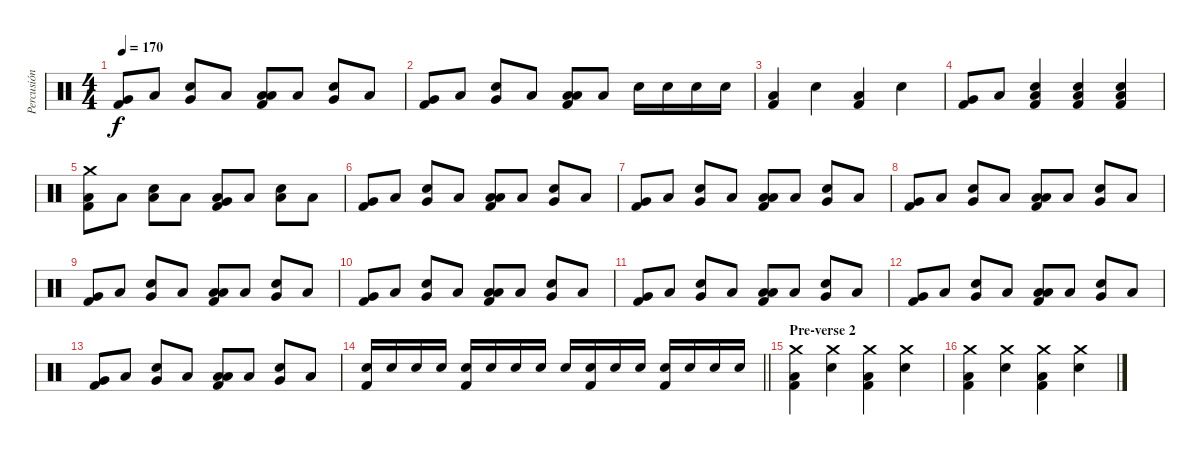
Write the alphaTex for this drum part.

\track ("Percusión" "Percusión") {instrument percussion}
\staff {score}
\articulation defaults
\ts (4 4)
\tempo 170
\clef neutral
\ks c
("Very Low Tom (hit)" "Kick (hit) 2").8{dy f} "Low Tom (hit)".8 ("Snare (hit) 2" "Very Low Tom (hit)").8 "Low Tom (hit)".8 ("Low Tom (hit)" "Low Floor Tom (hit)" "Kick (hit) 2").8 "Low Tom (hit)".8 ("Snare (hit) 2" "Very Low Tom (hit)").8 "Low Tom (hit)".8 |
("Very Low Tom (hit)" "Kick (hit) 2").8 "Low Tom (hit)".8 ("Snare (hit) 2" "Very Low Tom (hit)").8 "Low Tom (hit)".8 ("Low Tom (hit)" "Low Floor Tom (hit)" "Kick (hit) 2").8 "Low Tom (hit)".8 "Electric Snare (hit)".16 "Electric Snare (hit)".16 "Electric Snare (hit)".16 "Electric Snare (hit)".16 |
("Low Floor Tom (hit)" "Kick (hit) 2").4 "Snare (hit) 2".4 ("Low Floor Tom (hit)" "Kick (hit) 2").4 "Snare (hit) 2".4 |
("Very Low Tom (hit)" "Kick (hit) 2").8 "Low Tom (hit)".8 ("Snare (hit) 2" "Low Floor Tom (hit)" "Kick (hit) 2").4 ("Snare (hit) 2" "Low Floor Tom (hit)" "Kick (hit) 2").4 ("Snare (hit) 2" "Low Floor Tom (hit)" "Kick (hit) 2").4 |
("Crash medium (hit)" "Low Floor Tom (hit)" "Kick (hit) 2").8 "Low Tom (hit)".8 ("Snare (hit) 2" "Low Floor Tom (hit)").8 "Low Tom (hit)".8 ("Very Low Tom (hit)" "Low Floor Tom (hit)" "Kick (hit) 2").8 "Low Tom (hit)".8 ("Snare (hit) 2" "Low Floor Tom (hit)").8 "Low Tom (hit)".8 |
("Very Low Tom (hit)" "Kick (hit) 2").8 "Low Tom (hit)".8 ("Snare (hit) 2" "Very Low Tom (hit)").8 "Low Tom (hit)".8 ("Low Tom (hit)" "Low Floor Tom (hit)" "Kick (hit) 2").8 "Low Tom (hit)".8 ("Snare (hit) 2" "Very Low Tom (hit)").8 "Low Tom (hit)".8 |
("Very Low Tom (hit)" "Kick (hit) 2").8 "Low Tom (hit)".8 ("Snare (hit) 2" "Very Low Tom (hit)").8 "Low Tom (hit)".8 ("Low Tom (hit)" "Low Floor Tom (hit)" "Kick (hit) 2").8 "Low Tom (hit)".8 ("Snare (hit) 2" "Very Low Tom (hit)").8 "Low Tom (hit)".8 |
("Very Low Tom (hit)" "Kick (hit) 2").8 "Low Tom (hit)".8 ("Snare (hit) 2" "Very Low Tom (hit)").8 "Low Tom (hit)".8 ("Low Tom (hit)" "Low Floor Tom (hit)" "Kick (hit) 2").8 "Low Tom (hit)".8 ("Snare (hit) 2" "Very Low Tom (hit)").8 "Low Tom (hit)".8 |
("Very Low Tom (hit)" "Kick (hit) 2").8 "Low Tom (hit)".8 ("Snare (hit) 2" "Very Low Tom (hit)").8 "Low Tom (hit)".8 ("Low Tom (hit)" "Low Floor Tom (hit)" "Kick (hit) 2").8 "Low Tom (hit)".8 ("Snare (hit) 2" "Very Low Tom (hit)").8 "Low Tom (hit)".8 |
("Very Low Tom (hit)" "Kick (hit) 2").8 "Low Tom (hit)".8 ("Snare (hit) 2" "Very Low Tom (hit)").8 "Low Tom (hit)".8 ("Low Tom (hit)" "Low Floor Tom (hit)" "Kick (hit) 2").8 "Low Tom (hit)".8 ("Snare (hit) 2" "Very Low Tom (hit)").8 "Low Tom (hit)".8 |
("Very Low Tom (hit)" "Kick (hit) 2").8 "Low Tom (hit)".8 ("Snare (hit) 2" "Very Low Tom (hit)").8 "Low Tom (hit)".8 ("Low Tom (hit)" "Low Floor Tom (hit)" "Kick (hit) 2").8 "Low Tom (hit)".8 ("Snare (hit) 2" "Very Low Tom (hit)").8 "Low Tom (hit)".8 |
("Very Low Tom (hit)" "Kick (hit) 2").8 "Low Tom (hit)".8 ("Snare (hit) 2" "Very Low Tom (hit)").8 "Low Tom (hit)".8 ("Low Tom (hit)" "Low Floor Tom (hit)" "Kick (hit) 2").8 "Low Tom (hit)".8 ("Snare (hit) 2" "Very Low Tom (hit)").8 "Low Tom (hit)".8 |
("Very Low Tom (hit)" "Kick (hit) 2").8 "Low Tom (hit)".8 ("Snare (hit) 2" "Very Low Tom (hit)").8 "Low Tom (hit)".8 ("Low Tom (hit)" "Low Floor Tom (hit)" "Kick (hit) 2").8 "Low Tom (hit)".8 ("Snare (hit) 2" "Very Low Tom (hit)").8 "Low Tom (hit)".8 |
\barLineRight lightlight
("Electric Snare (hit)" "Kick (hit) 2").16 "Electric Snare (hit)".16 "Electric Snare (hit)".16 "Electric Snare (hit)".16 ("Electric Snare (hit)" "Kick (hit) 2").16 "Electric Snare (hit)".16 "Electric Snare (hit)".16 "Electric Snare (hit)".16 "Electric Snare (hit)".16 ("Electric Snare (hit)" "Kick (hit) 2").16 "Electric Snare (hit)".16 "Electric Snare (hit)".16 ("Electric Snare (hit)" "Kick (hit) 2").16 "Electric Snare (hit)".16 "Electric Snare (hit)".16 "Electric Snare (hit)".16 |
\section ("" "Pre-verse 2")
("Crash medium (hit)" "Low Floor Tom (hit)" "Kick (hit) 2").4 ("Crash medium (hit)" "Snare (hit) 2").4 ("Crash medium (hit)" "Low Floor Tom (hit)" "Kick (hit) 2").4 ("Crash medium (hit)" "Snare (hit) 2").4 |
("Crash medium (hit)" "Low Floor Tom (hit)" "Kick (hit) 2").4 ("Crash medium (hit)" "Snare (hit) 2").4 ("Crash medium (hit)" "Low Floor Tom (hit)" "Kick (hit) 2").4 ("Crash medium (hit)" "Snare (hit) 2").4
